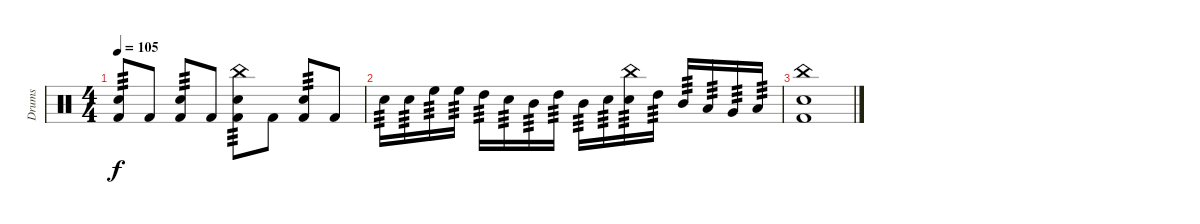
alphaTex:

\track ("Drums" "Drums") {instrument percussion}
\staff {score}
\articulation defaults
\ts (4 4)
\tempo 105
\clef neutral
\ks c
("Electric Snare (hit)" "Kick (hit) 2").8{tp 3 dy f} "Kick (hit) 2".8 ("Electric Snare (hit)" "Kick (hit) 2").8{tp 3} "Kick (hit) 2".8 ("China (hit)" "Electric Snare (hit)" "Kick (hit) 2").8{tp 3} "Kick (hit) 2".8 ("Electric Snare (hit)" "Kick (hit) 2").8{tp 3} "Kick (hit) 2".8 |
"Electric Snare (hit)".16{tp 3} "Electric Snare (hit)".16{tp 3} "High Floor Tom (hit)".16{tp 3} "High Floor Tom (hit)".16{tp 3} "High Tom (hit)".16{tp 3} "Electric Snare (hit)".16{tp 3} "Mid Tom (hit)".16{tp 3} "High Tom (hit)".16{tp 3} "Mid Tom (hit)".16{tp 3} "Electric Snare (hit)".16{tp 3} ("China (hit)" "Electric Snare (hit)").16{tp 3} "High Tom (hit)".16{tp 3} "Mid Tom (hit)".16{tp 3} "Low Tom (hit)".16{tp 3} "Very Low Tom (hit)".16{tp 3} "Low Floor Tom (hit)".16{tp 3} |
("China (hit)" "Electric Snare (hit)" "Kick (hit) 2").1
